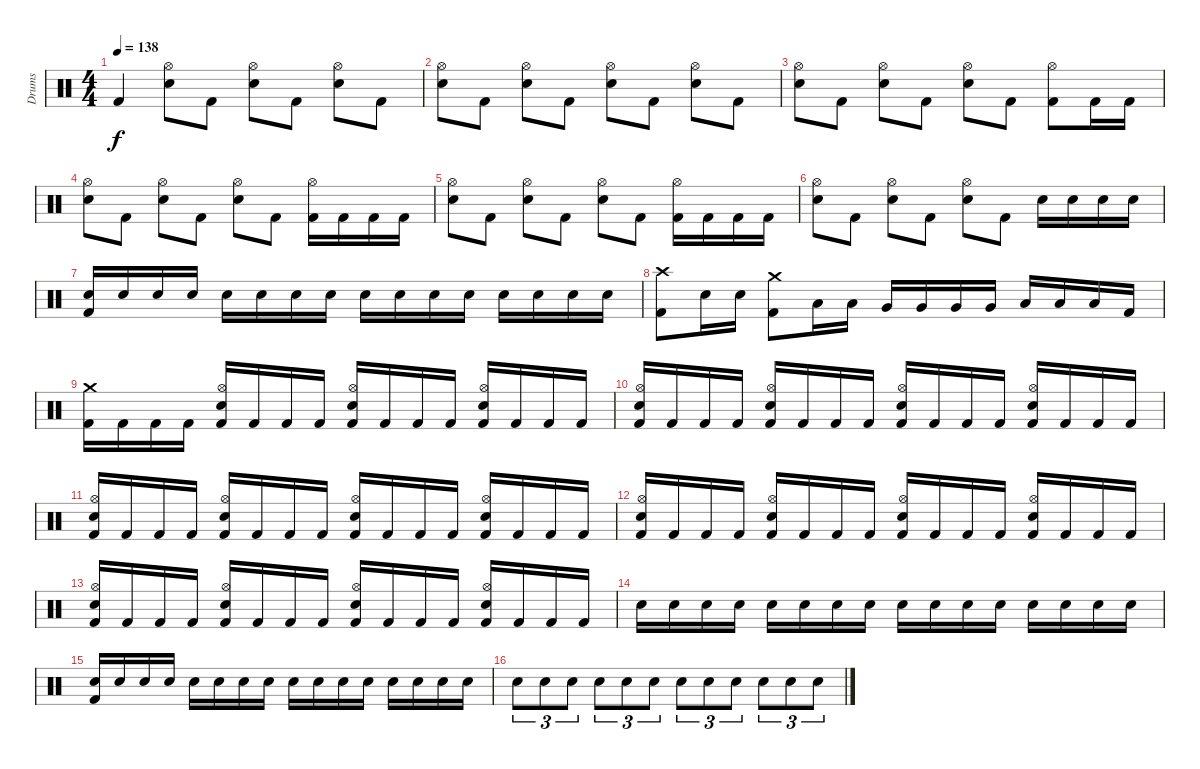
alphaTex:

\track ("Drums" "Drums") {instrument percussion}
\staff {score}
\articulation defaults
\ts (4 4)
\tempo 138
\clef neutral
\ks c "Kick (hit) 2".4{dy f}
("Hi-Hat (open)" "Electric Snare (hit)").8 "Kick (hit) 2".8 ("Hi-Hat (open)" "Electric Snare (hit)").8 "Kick (hit) 2".8 ("Hi-Hat (open)" "Electric Snare (hit)").8 "Kick (hit) 2".8 |
("Hi-Hat (open)" "Electric Snare (hit)").8 "Kick (hit) 2".8 ("Hi-Hat (open)" "Electric Snare (hit)").8 "Kick (hit) 2".8 ("Hi-Hat (open)" "Electric Snare (hit)").8 "Kick (hit) 2".8 ("Hi-Hat (open)" "Electric Snare (hit)").8 "Kick (hit) 2".8 |
("Hi-Hat (open)" "Electric Snare (hit)").8 "Kick (hit) 2".8 ("Hi-Hat (open)" "Electric Snare (hit)").8 "Kick (hit) 2".8 ("Hi-Hat (open)" "Electric Snare (hit)").8 "Kick (hit) 2".8 ("Hi-Hat (open)" "Kick (hit) 2").8 "Kick (hit) 2".16 "Kick (hit) 2".16 |
("Hi-Hat (open)" "Electric Snare (hit)").8 "Kick (hit) 2".8 ("Hi-Hat (open)" "Electric Snare (hit)").8 "Kick (hit) 2".8 ("Hi-Hat (open)" "Electric Snare (hit)").8 "Kick (hit) 2".8 ("Hi-Hat (open)" "Kick (hit) 2").16 "Kick (hit) 2".16 "Kick (hit) 2".16 "Kick (hit) 2".16 |
("Hi-Hat (open)" "Electric Snare (hit)").8 "Kick (hit) 2".8 ("Hi-Hat (open)" "Electric Snare (hit)").8 "Kick (hit) 2".8 ("Hi-Hat (open)" "Electric Snare (hit)").8 "Kick (hit) 2".8 ("Hi-Hat (open)" "Kick (hit) 2").16 "Kick (hit) 2".16 "Kick (hit) 2".16 "Kick (hit) 2".16 |
("Hi-Hat (open)" "Electric Snare (hit)").8 "Kick (hit) 2".8 ("Hi-Hat (open)" "Electric Snare (hit)").8 "Kick (hit) 2".8 ("Hi-Hat (open)" "Electric Snare (hit)").8 "Kick (hit) 2".8 "Electric Snare (hit)".16 "Electric Snare (hit)".16 "Electric Snare (hit)".16 "Electric Snare (hit)".16 |
("Electric Snare (hit)" "Kick (hit) 2").16 "Electric Snare (hit)".16 "Electric Snare (hit)".16 "Electric Snare (hit)".16 "Electric Snare (hit)".16 "Electric Snare (hit)".16 "Electric Snare (hit)".16 "Electric Snare (hit)".16 "Electric Snare (hit)".16 "Electric Snare (hit)".16 "Electric Snare (hit)".16 "Electric Snare (hit)".16 "Electric Snare (hit)".16 "Electric Snare (hit)".16 "Electric Snare (hit)".16 "Electric Snare (hit)".16 |
("Crash high (hit)" "Kick (hit) 2").8 "Electric Snare (hit)".16 "Electric Snare (hit)".16 ("Crash medium (hit)" "Kick (hit) 2").8 "Low Tom (hit)".16 "Low Tom (hit)".16 "Very Low Tom (hit)".16 "Very Low Tom (hit)".16 "Very Low Tom (hit)".16 "Very Low Tom (hit)".16 "Low Floor Tom (hit)".16 "Low Floor Tom (hit)".16 "Low Floor Tom (hit)".16 "Kick (hit) 2".16 |
("Crash medium (hit)" "Kick (hit) 2").16 "Kick (hit) 2".16 "Kick (hit) 2".16 "Kick (hit) 2".16 ("Hi-Hat (open)" "Electric Snare (hit)" "Kick (hit) 2").16 "Kick (hit) 2".16 "Kick (hit) 2".16 "Kick (hit) 2".16 ("Hi-Hat (open)" "Electric Snare (hit)" "Kick (hit) 2").16 "Kick (hit) 2".16 "Kick (hit) 2".16 "Kick (hit) 2".16 ("Hi-Hat (open)" "Electric Snare (hit)" "Kick (hit) 2").16 "Kick (hit) 2".16 "Kick (hit) 2".16 "Kick (hit) 2".16 |
("Hi-Hat (open)" "Electric Snare (hit)" "Kick (hit) 2").16 "Kick (hit) 2".16 "Kick (hit) 2".16 "Kick (hit) 2".16 ("Hi-Hat (open)" "Electric Snare (hit)" "Kick (hit) 2").16 "Kick (hit) 2".16 "Kick (hit) 2".16 "Kick (hit) 2".16 ("Hi-Hat (open)" "Electric Snare (hit)" "Kick (hit) 2").16 "Kick (hit) 2".16 "Kick (hit) 2".16 "Kick (hit) 2".16 ("Hi-Hat (open)" "Electric Snare (hit)" "Kick (hit) 2").16 "Kick (hit) 2".16 "Kick (hit) 2".16 "Kick (hit) 2".16 |
("Hi-Hat (open)" "Electric Snare (hit)" "Kick (hit) 2").16 "Kick (hit) 2".16 "Kick (hit) 2".16 "Kick (hit) 2".16 ("Hi-Hat (open)" "Electric Snare (hit)" "Kick (hit) 2").16 "Kick (hit) 2".16 "Kick (hit) 2".16 "Kick (hit) 2".16 ("Hi-Hat (open)" "Electric Snare (hit)" "Kick (hit) 2").16 "Kick (hit) 2".16 "Kick (hit) 2".16 "Kick (hit) 2".16 ("Hi-Hat (open)" "Electric Snare (hit)" "Kick (hit) 2").16 "Kick (hit) 2".16 "Kick (hit) 2".16 "Kick (hit) 2".16 |
("Hi-Hat (open)" "Electric Snare (hit)" "Kick (hit) 2").16 "Kick (hit) 2".16 "Kick (hit) 2".16 "Kick (hit) 2".16 ("Hi-Hat (open)" "Electric Snare (hit)" "Kick (hit) 2").16 "Kick (hit) 2".16 "Kick (hit) 2".16 "Kick (hit) 2".16 ("Hi-Hat (open)" "Electric Snare (hit)" "Kick (hit) 2").16 "Kick (hit) 2".16 "Kick (hit) 2".16 "Kick (hit) 2".16 ("Hi-Hat (open)" "Electric Snare (hit)" "Kick (hit) 2").16 "Kick (hit) 2".16 "Kick (hit) 2".16 "Kick (hit) 2".16 |
("Hi-Hat (open)" "Electric Snare (hit)" "Kick (hit) 2").16 "Kick (hit) 2".16 "Kick (hit) 2".16 "Kick (hit) 2".16 ("Hi-Hat (open)" "Electric Snare (hit)" "Kick (hit) 2").16 "Kick (hit) 2".16 "Kick (hit) 2".16 "Kick (hit) 2".16 ("Hi-Hat (open)" "Electric Snare (hit)" "Kick (hit) 2").16 "Kick (hit) 2".16 "Kick (hit) 2".16 "Kick (hit) 2".16 ("Hi-Hat (open)" "Electric Snare (hit)" "Kick (hit) 2").16 "Kick (hit) 2".16 "Kick (hit) 2".16 "Kick (hit) 2".16 |
"Electric Snare (hit)".16 "Electric Snare (hit)".16 "Electric Snare (hit)".16 "Electric Snare (hit)".16 "Electric Snare (hit)".16 "Electric Snare (hit)".16 "Electric Snare (hit)".16 "Electric Snare (hit)".16 "Electric Snare (hit)".16 "Electric Snare (hit)".16 "Electric Snare (hit)".16 "Electric Snare (hit)".16 "Electric Snare (hit)".16 "Electric Snare (hit)".16 "Electric Snare (hit)".16 "Electric Snare (hit)".16 |
("Electric Snare (hit)" "Kick (hit) 2").16 "Electric Snare (hit)".16 "Electric Snare (hit)".16 "Electric Snare (hit)".16 "Electric Snare (hit)".16 "Electric Snare (hit)".16 "Electric Snare (hit)".16 "Electric Snare (hit)".16 "Electric Snare (hit)".16 "Electric Snare (hit)".16 "Electric Snare (hit)".16 "Electric Snare (hit)".16 "Electric Snare (hit)".16 "Electric Snare (hit)".16 "Electric Snare (hit)".16 "Electric Snare (hit)".16 |
"Electric Snare (hit)".8{tu (3 2)} "Electric Snare (hit)".8{tu (3 2)} "Electric Snare (hit)".8{tu (3 2)} "Electric Snare (hit)".8{tu (3 2)} "Electric Snare (hit)".8{tu (3 2)} "Electric Snare (hit)".8{tu (3 2)} "Electric Snare (hit)".8{tu (3 2)} "Electric Snare (hit)".8{tu (3 2)} "Electric Snare (hit)".8{tu (3 2)} "Electric Snare (hit)".8{tu (3 2)} "Electric Snare (hit)".8{tu (3 2)} "Electric Snare (hit)".8{tu (3 2)}
